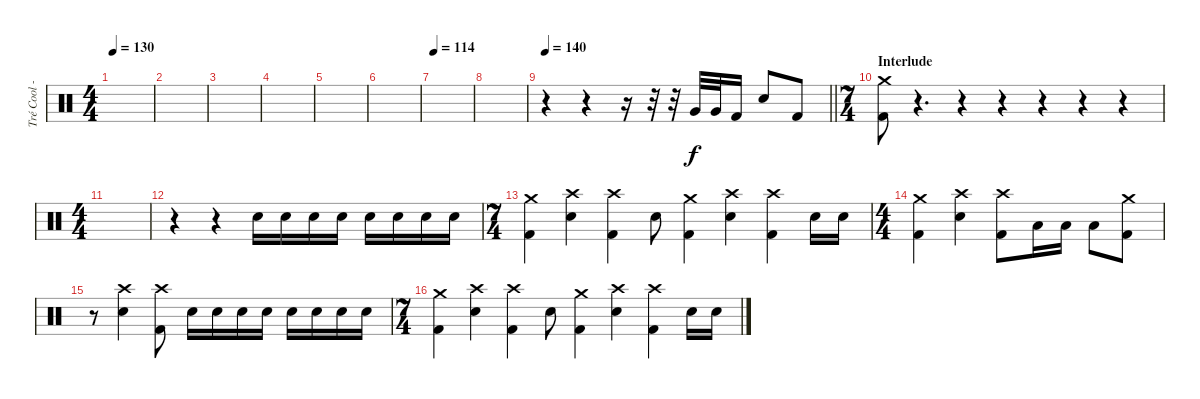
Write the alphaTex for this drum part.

\track ("Tré Cool - Drums" "Tré Cool -") {instrument percussion}
\staff {score}
\articulation defaults
\ts (4 4)
\tempo 130
\clef neutral
\ks c
|
|
|
|
|
|
\tempo 114
|
|
\tempo 140
\barLineRight lightlight
r.4 r.4 r.16 r.32 r.32 "Very Low Tom (hit)".32 "Very Low Tom (hit)".32 "Kick (hit) 2".16 "Electric Snare (hit)".8 "Kick (hit) 2".8 |
\ts (7 4)
\section ("" "Interlude")
("Crash medium (hit)" "Kick (hit) 2").8 r.4{d} r.4 r.4 r.4 r.4 r.4 |
\ts (4 4)
|
r.4 r.4 "Electric Snare (hit)".16 "Electric Snare (hit)".16 "Electric Snare (hit)".16 "Electric Snare (hit)".16 "Electric Snare (hit)".16 "Electric Snare (hit)".16 "Electric Snare (hit)".16 "Electric Snare (hit)".16 |
\ts (7 4)
("Crash medium (hit)" "Kick (hit) 2").4 ("Crash high (hit)" "Electric Snare (hit)").4 ("Crash high (hit)" "Kick (hit) 2").4 "Electric Snare (hit)".8 ("Crash medium (hit)" "Kick (hit) 2").4 ("Crash high (hit)" "Electric Snare (hit)").4 ("Crash high (hit)" "Kick (hit) 2").4 "Electric Snare (hit)".16 "Electric Snare (hit)".16 |
\ts (4 4)
("Crash medium (hit)" "Kick (hit) 2").4 ("Crash high (hit)" "Electric Snare (hit)").4 ("Crash high (hit)" "Kick (hit) 2").8 "Low Tom (hit)".16 "Low Tom (hit)".16 "Low Tom (hit)".8 ("Crash medium (hit)" "Kick (hit) 2").8 |
r.8 ("Crash high (hit)" "Electric Snare (hit)").4 ("Crash high (hit)" "Kick (hit) 2").8 "Electric Snare (hit)".16 "Electric Snare (hit)".16 "Electric Snare (hit)".16 "Electric Snare (hit)".16 "Electric Snare (hit)".16 "Electric Snare (hit)".16 "Electric Snare (hit)".16 "Electric Snare (hit)".16 |
\ts (7 4)
("Crash medium (hit)" "Kick (hit) 2").4 ("Crash high (hit)" "Electric Snare (hit)").4 ("Crash high (hit)" "Kick (hit) 2").4 "Electric Snare (hit)".8 ("Crash medium (hit)" "Kick (hit) 2").4 ("Crash high (hit)" "Electric Snare (hit)").4 ("Crash high (hit)" "Kick (hit) 2").4 "Electric Snare (hit)".16 "Electric Snare (hit)".16
